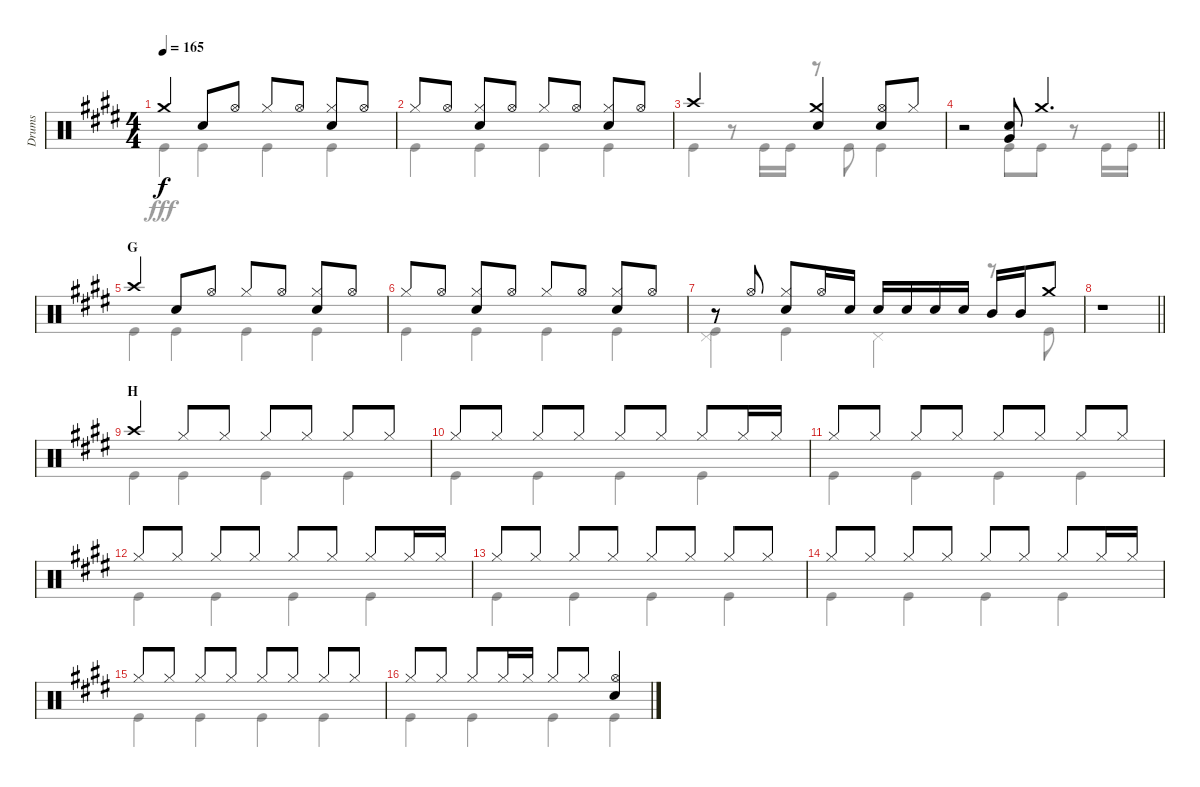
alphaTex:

\track ("Drums" "Drums") {instrument percussion}
\staff {score}
\articulation defaults
\voice
\ts (4 4)
\tempo 165
\clef neutral
\ks e "Crash medium (hit)".4{dy f} "Snare (hit) 2".8 "Hi-Hat (open)".8 "Hi-Hat (closed)".8 "Hi-Hat (open)".8
("Hi-Hat (closed)" "Snare (hit) 2").8 "Hi-Hat (open)".8 |
"Hi-Hat (closed)".8 "Hi-Hat (open)".8 ("Hi-Hat (closed)" "Snare (hit) 2").8 "Hi-Hat (open)".8 "Hi-Hat (closed)".8 "Hi-Hat (open)".8 ("Hi-Hat (closed)" "Snare (hit) 2").8 "Hi-Hat (open)".8 |
"Crash high (hit)".2 ("Crash medium (hit)" "Snare (hit) 2").4 ("Hi-Hat (open)" "Snare (hit) 2").8 "Hi-Hat (closed)".8 |
\barLineRight lightlight
r.2 ("Snare (hit) 2" "Very Low Tom (hit)").8 "Crash medium (hit)".4{d} |
\section ("" "G")
"Crash high (hit)".4 "Snare (hit) 2".8 "Hi-Hat (open)".8 "Hi-Hat (closed)".8 "Hi-Hat (open)".8 ("Hi-Hat (closed)" "Snare (hit) 2").8 "Hi-Hat (open)".8 |
"Hi-Hat (closed)".8 "Hi-Hat (open)".8 ("Hi-Hat (closed)" "Snare (hit) 2").8 "Hi-Hat (open)".8 "Hi-Hat (closed)".8 "Hi-Hat (open)".8 ("Hi-Hat (closed)" "Snare (hit) 2").8 "Hi-Hat (open)".8 |
r.8 "Hi-Hat (open)".8 ("Hi-Hat (closed)" "Snare (hit) 2").8 "Hi-Hat (open)".16 "Snare (hit) 2".16 "Snare (hit) 2".16 "Snare (hit) 2".16 "Snare (hit) 2".16 "Snare (hit) 2".16 "Mid Tom (hit)".16 "Mid Tom (hit)".16 "Crash medium (hit)".8 |
\barLineRight lightlight
r.1 |
\section ("" "H")
"Crash high (hit)".4 "Hi-Hat (closed)".8 "Hi-Hat (closed)".8 "Hi-Hat (closed)".8 "Hi-Hat (closed)".8 "Hi-Hat (closed)".8 "Hi-Hat (closed)".8 |
"Hi-Hat (closed)".8 "Hi-Hat (closed)".8 "Hi-Hat (closed)".8 "Hi-Hat (closed)".8 "Hi-Hat (closed)".8 "Hi-Hat (closed)".8 "Hi-Hat (closed)".8 "Hi-Hat (closed)".16 "Hi-Hat (closed)".16 |
"Hi-Hat (closed)".8 "Hi-Hat (closed)".8 "Hi-Hat (closed)".8 "Hi-Hat (closed)".8 "Hi-Hat (closed)".8 "Hi-Hat (closed)".8 "Hi-Hat (closed)".8 "Hi-Hat (closed)".8 |
"Hi-Hat (closed)".8 "Hi-Hat (closed)".8 "Hi-Hat (closed)".8 "Hi-Hat (closed)".8 "Hi-Hat (closed)".8 "Hi-Hat (closed)".8 "Hi-Hat (closed)".8 "Hi-Hat (closed)".16 "Hi-Hat (closed)".16 |
"Hi-Hat (closed)".8 "Hi-Hat (closed)".8 "Hi-Hat (closed)".8 "Hi-Hat (closed)".8 "Hi-Hat (closed)".8 "Hi-Hat (closed)".8 "Hi-Hat (closed)".8 "Hi-Hat (closed)".8 |
"Hi-Hat (closed)".8 "Hi-Hat (closed)".8 "Hi-Hat (closed)".8 "Hi-Hat (closed)".8 "Hi-Hat (closed)".8 "Hi-Hat (closed)".8 "Hi-Hat (closed)".8 "Hi-Hat (closed)".16 "Hi-Hat (closed)".16 |
"Hi-Hat (closed)".8 "Hi-Hat (closed)".8 "Hi-Hat (closed)".8 "Hi-Hat (closed)".8 "Hi-Hat (closed)".8 "Hi-Hat (closed)".8 "Hi-Hat (closed)".8 "Hi-Hat (closed)".8 |
"Hi-Hat (closed)".8 "Hi-Hat (closed)".8 "Hi-Hat (closed)".8 "Hi-Hat (closed)".16 "Hi-Hat (closed)".16 "Hi-Hat (closed)".8 "Hi-Hat (closed)".8 ("Hi-Hat (open)" "Snare (hit) 2").4
\voice
\clef neutral
\ottava regular
\simile none
\ks e "Kick (hit)".4{dy fff} "Kick (hit)".4 "Kick (hit)".4 "Kick (hit)".4
|
"Kick (hit)".4 "Kick (hit)".4 "Kick (hit)".4 "Kick (hit)".4 |
"Kick (hit)".4 r.8 "Kick (hit)".16 "Kick (hit)".16 r.8 "Kick (hit)".8 "Kick (hit)".4 |
\barLineRight lightlight
r.2 "Kick (hit)".8 "Kick (hit)".8 r.8 "Kick (hit)".16 "Kick (hit)".16 |
"Kick (hit)".4 "Kick (hit)".4 "Kick (hit)".4 "Kick (hit)".4 |
"Kick (hit)".4 "Kick (hit)".4 "Kick (hit)".4 "Kick (hit)".4 |
("Pedal Hi-Hat (hit)" "Kick (hit)").4 "Kick (hit)".4 "Pedal Hi-Hat (hit)".4 r.8 "Kick (hit)".8 |
\barLineRight lightlight
r.1 |
"Kick (hit)".4 "Kick (hit)".4 "Kick (hit)".4 "Kick (hit)".4 |
"Kick (hit)".4 "Kick (hit)".4 "Kick (hit)".4 "Kick (hit)".4 |
"Kick (hit)".4 "Kick (hit)".4 "Kick (hit)".4 "Kick (hit)".4 |
"Kick (hit)".4 "Kick (hit)".4 "Kick (hit)".4 "Kick (hit)".4 |
"Kick (hit)".4 "Kick (hit)".4 "Kick (hit)".4 "Kick (hit)".4 |
"Kick (hit)".4 "Kick (hit)".4 "Kick (hit)".4 "Kick (hit)".4 |
"Kick (hit)".4 "Kick (hit)".4 "Kick (hit)".4 "Kick (hit)".4 |
"Kick (hit)".4 "Kick (hit)".4 "Kick (hit)".4 "Kick (hit)".4
